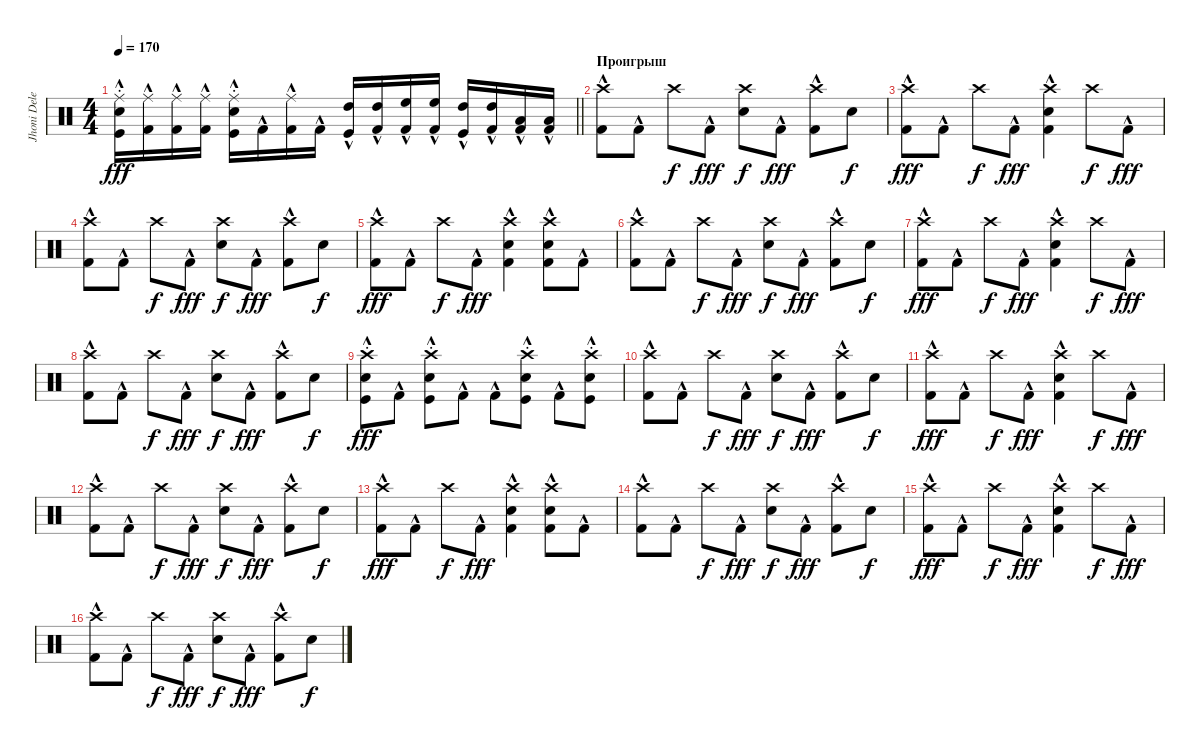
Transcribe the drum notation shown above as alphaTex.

\track ("Jhoni Delenger" "Jhoni Dele") {instrument percussion}
\staff {score}
\articulation defaults
\ts (4 4)
\tempo 170
\clef neutral
\barLineRight lightlight
\ks c
("Snare (hit) 2"{st} "Ride (middle)"{hac} "Kick (hit)"{hac}).16{dy fff} ("Kick (hit) 2"{hac} "Ride (middle)"{hac}).16 ("Kick (hit) 2"{hac} "Ride (middle)"{hac}).16 ("Kick (hit) 2"{hac} "Ride (middle)"{hac}).16 ("Snare (hit) 2"{st} "Ride (middle)"{hac} "Kick (hit)"{hac}).16 "Kick (hit) 2"{hac}.16 ("Kick (hit) 2"{hac} "Ride (middle)"{hac}).16 "Kick (hit) 2"{hac}.16 ("High Tom (hit)"{hac} "Kick (hit)"{hac}).16 ("Kick (hit) 2"{hac} "High Tom (hit)"{hac}).16 ("Kick (hit) 2"{hac} "High Floor Tom (hit)"{hac}).16 ("Kick (hit) 2"{hac} "High Floor Tom (hit)"{hac}).16 ("High Tom (hit)"{hac} "Kick (hit)"{hac}).16 ("Kick (hit) 2"{hac} "High Tom (hit)"{hac}).16 ("Kick (hit) 2"{hac} "Low Tom (hit)"{hac}).16 ("Kick (hit) 2"{hac} "Low Tom (hit)"{hac}).16 |
\section ("" "Проигрыш")
("Kick (hit) 2"{hac} "Crash high (hit)").8 "Kick (hit) 2"{hac}.8 "Crash high (hit)".8{dy f} "Kick (hit) 2"{hac}.8{dy fff} ("Snare (hit) 2" "Crash high (hit)").8{dy f} "Kick (hit) 2"{hac}.8{dy fff} ("Kick (hit) 2"{hac} "Crash high (hit)").8 "Snare (hit) 2".8{dy f} |
("Kick (hit) 2"{hac} "Crash high (hit)").8{dy fff} "Kick (hit) 2"{hac}.8 "Crash high (hit)".8{dy f} "Kick (hit) 2"{hac}.8{dy fff} ("Snare (hit) 2" "Crash high (hit)" "Kick (hit) 2"{hac}).4 "Crash high (hit)".8{dy f} "Kick (hit) 2"{hac}.8{dy fff} |
("Kick (hit) 2"{hac} "Crash high (hit)").8 "Kick (hit) 2"{hac}.8 "Crash high (hit)".8{dy f} "Kick (hit) 2"{hac}.8{dy fff} ("Snare (hit) 2" "Crash high (hit)").8{dy f} "Kick (hit) 2"{hac}.8{dy fff} ("Kick (hit) 2"{hac} "Crash high (hit)").8 "Snare (hit) 2".8{dy f} |
("Kick (hit) 2"{hac} "Crash high (hit)").8{dy fff} "Kick (hit) 2"{hac}.8 "Crash high (hit)".8{dy f} "Kick (hit) 2"{hac}.8{dy fff} ("Snare (hit) 2" "Crash high (hit)" "Kick (hit) 2"{hac}).4 ("Kick (hit) 2"{hac} "Crash high (hit)" "Snare (hit) 2").8 "Kick (hit) 2"{hac}.8 |
("Kick (hit) 2"{hac} "Crash high (hit)").8 "Kick (hit) 2"{hac}.8 "Crash high (hit)".8{dy f} "Kick (hit) 2"{hac}.8{dy fff} ("Snare (hit) 2" "Crash high (hit)").8{dy f} "Kick (hit) 2"{hac}.8{dy fff} ("Kick (hit) 2"{hac} "Crash high (hit)").8 "Snare (hit) 2".8{dy f} |
("Kick (hit) 2"{hac} "Crash high (hit)").8{dy fff} "Kick (hit) 2"{hac}.8 "Crash high (hit)".8{dy f} "Kick (hit) 2"{hac}.8{dy fff} ("Snare (hit) 2" "Crash high (hit)" "Kick (hit) 2"{hac}).4 "Crash high (hit)".8{dy f} "Kick (hit) 2"{hac}.8{dy fff} |
("Kick (hit) 2"{hac} "Crash high (hit)").8 "Kick (hit) 2"{hac}.8 "Crash high (hit)".8{dy f} "Kick (hit) 2"{hac}.8{dy fff} ("Snare (hit) 2" "Crash high (hit)").8{dy f} "Kick (hit) 2"{hac}.8{dy fff} ("Kick (hit) 2"{hac} "Crash high (hit)").8 "Snare (hit) 2".8{dy f} |
("Snare (hit) 2"{st} "Crash high (hit)" "Kick (hit)"{hac}).8{dy fff} "Kick (hit) 2"{hac}.8 ("Snare (hit) 2"{st} "Crash high (hit)" "Kick (hit)"{hac}).8 "Kick (hit) 2"{hac}.8 "Kick (hit) 2"{hac}.8 ("Snare (hit) 2"{st} "Crash high (hit)" "Kick (hit)"{hac}).8 "Kick (hit) 2"{hac}.8 ("Snare (hit) 2"{st} "Crash high (hit)" "Kick (hit)"{hac}).8 |
("Kick (hit) 2"{hac} "Crash high (hit)").8 "Kick (hit) 2"{hac}.8 "Crash high (hit)".8{dy f} "Kick (hit) 2"{hac}.8{dy fff} ("Snare (hit) 2" "Crash high (hit)").8{dy f} "Kick (hit) 2"{hac}.8{dy fff} ("Kick (hit) 2"{hac} "Crash high (hit)").8 "Snare (hit) 2".8{dy f} |
("Kick (hit) 2"{hac} "Crash high (hit)").8{dy fff} "Kick (hit) 2"{hac}.8 "Crash high (hit)".8{dy f} "Kick (hit) 2"{hac}.8{dy fff} ("Snare (hit) 2" "Crash high (hit)" "Kick (hit) 2"{hac}).4 "Crash high (hit)".8{dy f} "Kick (hit) 2"{hac}.8{dy fff} |
("Kick (hit) 2"{hac} "Crash high (hit)").8 "Kick (hit) 2"{hac}.8 "Crash high (hit)".8{dy f} "Kick (hit) 2"{hac}.8{dy fff} ("Snare (hit) 2" "Crash high (hit)").8{dy f} "Kick (hit) 2"{hac}.8{dy fff} ("Kick (hit) 2"{hac} "Crash high (hit)").8 "Snare (hit) 2".8{dy f} |
("Kick (hit) 2"{hac} "Crash high (hit)").8{dy fff} "Kick (hit) 2"{hac}.8 "Crash high (hit)".8{dy f} "Kick (hit) 2"{hac}.8{dy fff} ("Snare (hit) 2" "Crash high (hit)" "Kick (hit) 2"{hac}).4 ("Kick (hit) 2"{hac} "Crash high (hit)" "Snare (hit) 2").8 "Kick (hit) 2"{hac}.8 |
("Kick (hit) 2"{hac} "Crash high (hit)").8 "Kick (hit) 2"{hac}.8 "Crash high (hit)".8{dy f} "Kick (hit) 2"{hac}.8{dy fff} ("Snare (hit) 2" "Crash high (hit)").8{dy f} "Kick (hit) 2"{hac}.8{dy fff} ("Kick (hit) 2"{hac} "Crash high (hit)").8 "Snare (hit) 2".8{dy f} |
("Kick (hit) 2"{hac} "Crash high (hit)").8{dy fff} "Kick (hit) 2"{hac}.8 "Crash high (hit)".8{dy f} "Kick (hit) 2"{hac}.8{dy fff} ("Snare (hit) 2" "Crash high (hit)" "Kick (hit) 2"{hac}).4 "Crash high (hit)".8{dy f} "Kick (hit) 2"{hac}.8{dy fff} |
("Kick (hit) 2"{hac} "Crash high (hit)").8 "Kick (hit) 2"{hac}.8 "Crash high (hit)".8{dy f} "Kick (hit) 2"{hac}.8{dy fff} ("Snare (hit) 2" "Crash high (hit)").8{dy f} "Kick (hit) 2"{hac}.8{dy fff} ("Kick (hit) 2"{hac} "Crash high (hit)").8 "Snare (hit) 2".8{dy f}
